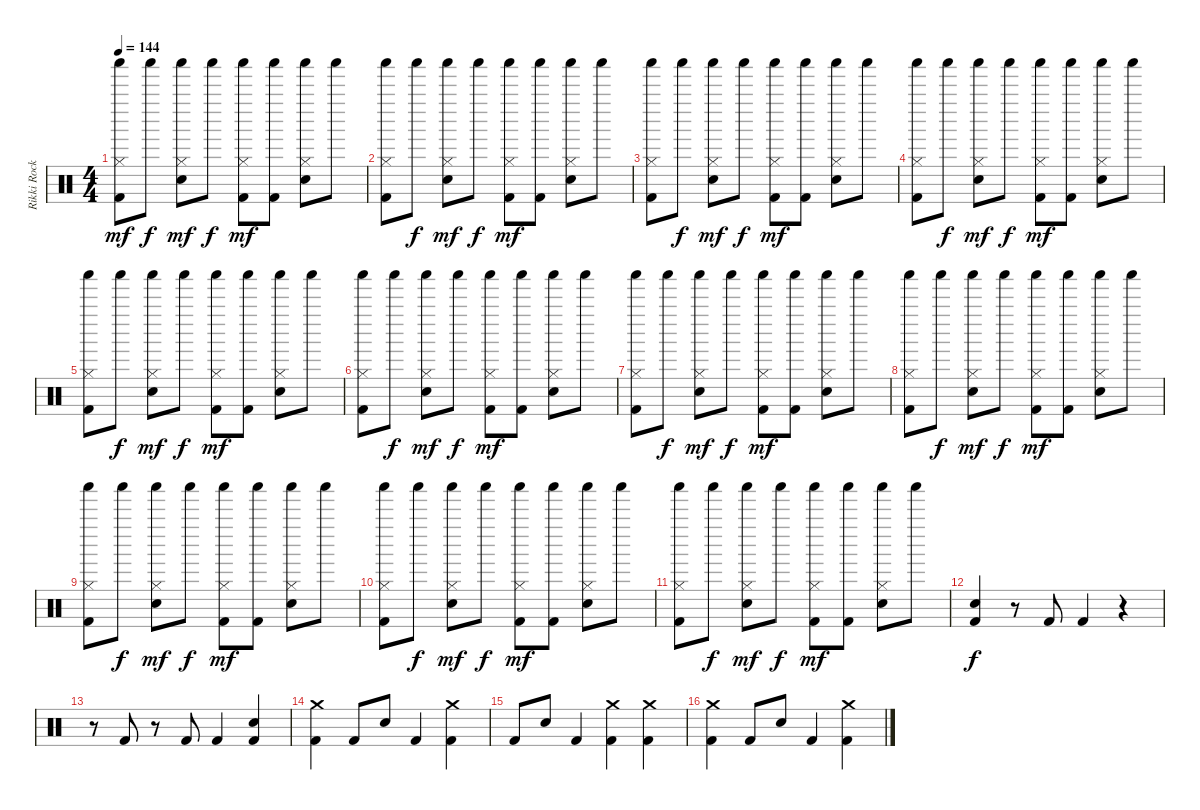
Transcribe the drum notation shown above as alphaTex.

\track ("Rikki Rockett - Drums" "Rikki Rock") {instrument percussion}
\staff {score}
\articulation defaults
\ts (4 4)
\tempo 144
\clef neutral
\ks c
("Hi-Hat (closed)" "Shaker (hit)" "Kick (hit) 2").8{dy mf} "Shaker (hit)".8{dy f} ("Hi-Hat (closed)" "Shaker (hit)" "Electric Snare (hit)").8{dy mf} "Shaker (hit)".8{dy f} ("Hi-Hat (closed)" "Shaker (hit)" "Kick (hit) 2").8{dy mf} ("Shaker (hit)" "Kick (hit) 2").8 ("Hi-Hat (closed)" "Shaker (hit)" "Electric Snare (hit)").8 "Shaker (hit)".8 |
("Hi-Hat (closed)" "Shaker (hit)" "Kick (hit) 2").8 "Shaker (hit)".8{dy f} ("Hi-Hat (closed)" "Shaker (hit)" "Electric Snare (hit)").8{dy mf} "Shaker (hit)".8{dy f} ("Hi-Hat (closed)" "Shaker (hit)" "Kick (hit) 2").8{dy mf} ("Shaker (hit)" "Kick (hit) 2").8 ("Hi-Hat (closed)" "Shaker (hit)" "Electric Snare (hit)").8 "Shaker (hit)".8 |
("Hi-Hat (closed)" "Shaker (hit)" "Kick (hit) 2").8 "Shaker (hit)".8{dy f} ("Hi-Hat (closed)" "Shaker (hit)" "Electric Snare (hit)").8{dy mf} "Shaker (hit)".8{dy f} ("Hi-Hat (closed)" "Shaker (hit)" "Kick (hit) 2").8{dy mf} ("Shaker (hit)" "Kick (hit) 2").8 ("Hi-Hat (closed)" "Shaker (hit)" "Electric Snare (hit)").8 "Shaker (hit)".8 |
("Hi-Hat (closed)" "Shaker (hit)" "Kick (hit) 2").8 "Shaker (hit)".8{dy f} ("Hi-Hat (closed)" "Shaker (hit)" "Electric Snare (hit)").8{dy mf} "Shaker (hit)".8{dy f} ("Hi-Hat (closed)" "Shaker (hit)" "Kick (hit) 2").8{dy mf} ("Shaker (hit)" "Kick (hit) 2").8 ("Hi-Hat (closed)" "Shaker (hit)" "Electric Snare (hit)").8 "Shaker (hit)".8 |
("Hi-Hat (closed)" "Shaker (hit)" "Kick (hit) 2").8 "Shaker (hit)".8{dy f} ("Hi-Hat (closed)" "Shaker (hit)" "Electric Snare (hit)").8{dy mf} "Shaker (hit)".8{dy f} ("Hi-Hat (closed)" "Shaker (hit)" "Kick (hit) 2").8{dy mf} ("Shaker (hit)" "Kick (hit) 2").8 ("Hi-Hat (closed)" "Shaker (hit)" "Electric Snare (hit)").8 "Shaker (hit)".8 |
("Hi-Hat (closed)" "Shaker (hit)" "Kick (hit) 2").8 "Shaker (hit)".8{dy f} ("Hi-Hat (closed)" "Shaker (hit)" "Electric Snare (hit)").8{dy mf} "Shaker (hit)".8{dy f} ("Hi-Hat (closed)" "Shaker (hit)" "Kick (hit) 2").8{dy mf} ("Shaker (hit)" "Kick (hit) 2").8 ("Hi-Hat (closed)" "Shaker (hit)" "Electric Snare (hit)").8 "Shaker (hit)".8 |
("Hi-Hat (closed)" "Shaker (hit)" "Kick (hit) 2").8 "Shaker (hit)".8{dy f} ("Hi-Hat (closed)" "Shaker (hit)" "Electric Snare (hit)").8{dy mf} "Shaker (hit)".8{dy f} ("Hi-Hat (closed)" "Shaker (hit)" "Kick (hit) 2").8{dy mf} ("Shaker (hit)" "Kick (hit) 2").8 ("Hi-Hat (closed)" "Shaker (hit)" "Electric Snare (hit)").8 "Shaker (hit)".8 |
("Hi-Hat (closed)" "Shaker (hit)" "Kick (hit) 2").8 "Shaker (hit)".8{dy f} ("Hi-Hat (closed)" "Shaker (hit)" "Electric Snare (hit)").8{dy mf} "Shaker (hit)".8{dy f} ("Hi-Hat (closed)" "Shaker (hit)" "Kick (hit) 2").8{dy mf} ("Shaker (hit)" "Kick (hit) 2").8 ("Hi-Hat (closed)" "Shaker (hit)" "Electric Snare (hit)").8 "Shaker (hit)".8 |
("Hi-Hat (closed)" "Shaker (hit)" "Kick (hit) 2").8 "Shaker (hit)".8{dy f} ("Hi-Hat (closed)" "Shaker (hit)" "Electric Snare (hit)").8{dy mf} "Shaker (hit)".8{dy f} ("Hi-Hat (closed)" "Shaker (hit)" "Kick (hit) 2").8{dy mf} ("Shaker (hit)" "Kick (hit) 2").8 ("Hi-Hat (closed)" "Shaker (hit)" "Electric Snare (hit)").8 "Shaker (hit)".8 |
("Hi-Hat (closed)" "Shaker (hit)" "Kick (hit) 2").8 "Shaker (hit)".8{dy f} ("Hi-Hat (closed)" "Shaker (hit)" "Electric Snare (hit)").8{dy mf} "Shaker (hit)".8{dy f} ("Hi-Hat (closed)" "Shaker (hit)" "Kick (hit) 2").8{dy mf} ("Shaker (hit)" "Kick (hit) 2").8 ("Hi-Hat (closed)" "Shaker (hit)" "Electric Snare (hit)").8 "Shaker (hit)".8 |
("Hi-Hat (closed)" "Shaker (hit)" "Kick (hit) 2").8 "Shaker (hit)".8{dy f} ("Hi-Hat (closed)" "Shaker (hit)" "Electric Snare (hit)").8{dy mf} "Shaker (hit)".8{dy f} ("Hi-Hat (closed)" "Shaker (hit)" "Kick (hit) 2").8{dy mf} ("Shaker (hit)" "Kick (hit) 2").8 ("Hi-Hat (closed)" "Shaker (hit)" "Electric Snare (hit)").8 "Shaker (hit)".8 |
("Electric Snare (hit)" "Kick (hit) 2").4{dy f} r.8 "Kick (hit) 2".8 "Kick (hit) 2".4 r.4 |
r.8 "Kick (hit) 2".8 r.8 "Kick (hit) 2".8 "Kick (hit) 2".4 ("Electric Snare (hit)" "Kick (hit) 2").4 |
("Crash medium (hit)" "Kick (hit) 2").4 "Kick (hit) 2".8 "Electric Snare (hit)".8 "Kick (hit) 2".4 ("Crash medium (hit)" "Kick (hit) 2").4 |
"Kick (hit) 2".8 "Electric Snare (hit)".8 "Kick (hit) 2".4 ("Crash medium (hit)" "Kick (hit) 2").4 ("Crash medium (hit)" "Kick (hit) 2").4 |
("Crash medium (hit)" "Kick (hit) 2").4 "Kick (hit) 2".8 "Electric Snare (hit)".8 "Kick (hit) 2".4 ("Crash medium (hit)" "Kick (hit) 2").4
